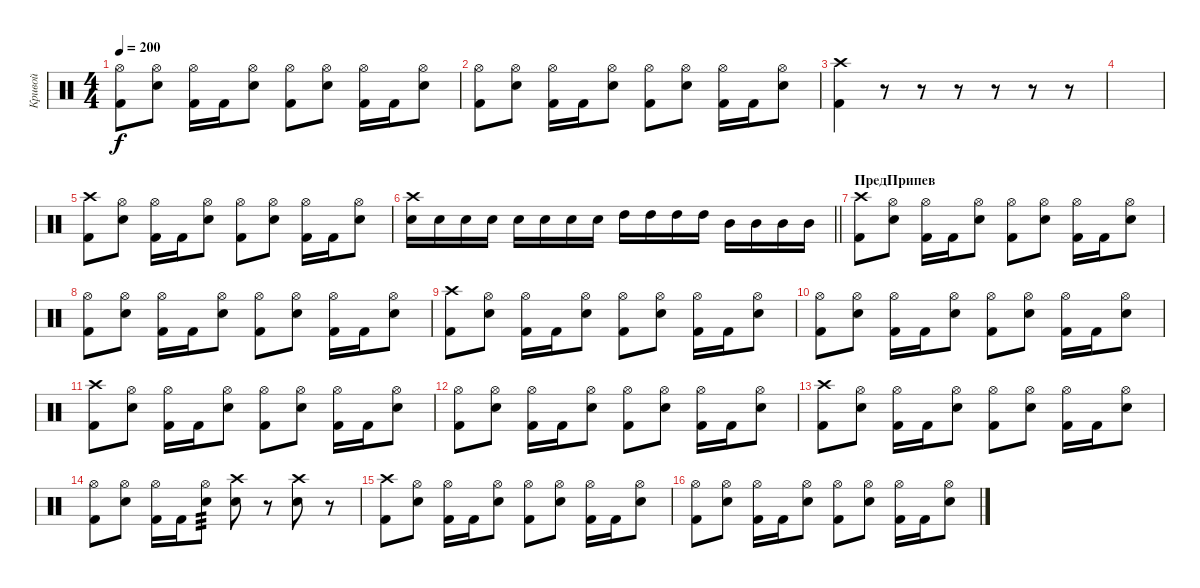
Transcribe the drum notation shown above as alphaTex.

\track ("Кривой" "Кривой") {instrument percussion}
\staff {score}
\articulation defaults
\ts (4 4)
\tempo 200
\clef neutral
\ks c
("Kick (hit) 2" "Hi-Hat (open)").8{dy f} ("Electric Snare (hit)" "Hi-Hat (open)").8 ("Kick (hit) 2" "Hi-Hat (open)").16 "Kick (hit) 2".16 ("Electric Snare (hit)" "Hi-Hat (open)").8 ("Kick (hit) 2" "Hi-Hat (open)").8 ("Electric Snare (hit)" "Hi-Hat (open)").8 ("Kick (hit) 2" "Hi-Hat (open)").16 "Kick (hit) 2".16 ("Electric Snare (hit)" "Hi-Hat (open)").8 |
("Kick (hit) 2" "Hi-Hat (open)").8 ("Electric Snare (hit)" "Hi-Hat (open)").8 ("Kick (hit) 2" "Hi-Hat (open)").16 "Kick (hit) 2".16 ("Electric Snare (hit)" "Hi-Hat (open)").8 ("Kick (hit) 2" "Hi-Hat (open)").8 ("Electric Snare (hit)" "Hi-Hat (open)").8 ("Kick (hit) 2" "Hi-Hat (open)").16 "Kick (hit) 2".16 ("Electric Snare (hit)" "Hi-Hat (open)").8 |
("Kick (hit) 2" "Crash high (hit)").4 r.8 r.8 r.8 r.8 r.8 r.8 |
|
("Kick (hit) 2" "Crash high (hit)").8 ("Electric Snare (hit)" "Hi-Hat (open)").8 ("Kick (hit) 2" "Hi-Hat (open)").16 "Kick (hit) 2".16 ("Electric Snare (hit)" "Hi-Hat (open)").8 ("Kick (hit) 2" "Hi-Hat (open)").8 ("Electric Snare (hit)" "Hi-Hat (open)").8 ("Kick (hit) 2" "Hi-Hat (open)").16 "Kick (hit) 2".16 ("Electric Snare (hit)" "Hi-Hat (open)").8 |
\barLineRight lightlight
("Electric Snare (hit)" "Crash high (hit)").16 "Electric Snare (hit)".16 "Electric Snare (hit)".16 "Electric Snare (hit)".16 "Electric Snare (hit)".16 "Electric Snare (hit)".16 "Electric Snare (hit)".16 "Electric Snare (hit)".16 "High Tom (hit)".16 "High Tom (hit)".16 "High Tom (hit)".16 "High Tom (hit)".16 "Mid Tom (hit)".16 "Mid Tom (hit)".16 "Mid Tom (hit)".16 "Mid Tom (hit)".16 |
\section ("" "ПредПрипев")
("Kick (hit) 2" "Crash high (hit)").8 ("Electric Snare (hit)" "Hi-Hat (open)").8 ("Kick (hit) 2" "Hi-Hat (open)").16 "Kick (hit) 2".16 ("Electric Snare (hit)" "Hi-Hat (open)").8 ("Kick (hit) 2" "Hi-Hat (open)").8 ("Electric Snare (hit)" "Hi-Hat (open)").8 ("Kick (hit) 2" "Hi-Hat (open)").16 "Kick (hit) 2".16 ("Electric Snare (hit)" "Hi-Hat (open)").8 |
("Kick (hit) 2" "Hi-Hat (open)").8 ("Electric Snare (hit)" "Hi-Hat (open)").8 ("Kick (hit) 2" "Hi-Hat (open)").16 "Kick (hit) 2".16 ("Electric Snare (hit)" "Hi-Hat (open)").8 ("Kick (hit) 2" "Hi-Hat (open)").8 ("Electric Snare (hit)" "Hi-Hat (open)").8 ("Kick (hit) 2" "Hi-Hat (open)").16 "Kick (hit) 2".16 ("Electric Snare (hit)" "Hi-Hat (open)").8 |
("Kick (hit) 2" "Crash high (hit)").8 ("Electric Snare (hit)" "Hi-Hat (open)").8 ("Kick (hit) 2" "Hi-Hat (open)").16 "Kick (hit) 2".16 ("Electric Snare (hit)" "Hi-Hat (open)").8 ("Kick (hit) 2" "Hi-Hat (open)").8 ("Electric Snare (hit)" "Hi-Hat (open)").8 ("Kick (hit) 2" "Hi-Hat (open)").16 "Kick (hit) 2".16 ("Electric Snare (hit)" "Hi-Hat (open)").8 |
("Kick (hit) 2" "Hi-Hat (open)").8 ("Electric Snare (hit)" "Hi-Hat (open)").8 ("Kick (hit) 2" "Hi-Hat (open)").16 "Kick (hit) 2".16 ("Electric Snare (hit)" "Hi-Hat (open)").8 ("Kick (hit) 2" "Hi-Hat (open)").8 ("Electric Snare (hit)" "Hi-Hat (open)").8 ("Kick (hit) 2" "Hi-Hat (open)").16 "Kick (hit) 2".16 ("Electric Snare (hit)" "Hi-Hat (open)").8 |
("Kick (hit) 2" "Crash high (hit)").8 ("Electric Snare (hit)" "Hi-Hat (open)").8 ("Kick (hit) 2" "Hi-Hat (open)").16 "Kick (hit) 2".16 ("Electric Snare (hit)" "Hi-Hat (open)").8 ("Kick (hit) 2" "Hi-Hat (open)").8 ("Electric Snare (hit)" "Hi-Hat (open)").8 ("Kick (hit) 2" "Hi-Hat (open)").16 "Kick (hit) 2".16 ("Electric Snare (hit)" "Hi-Hat (open)").8 |
("Kick (hit) 2" "Hi-Hat (open)").8 ("Electric Snare (hit)" "Hi-Hat (open)").8 ("Kick (hit) 2" "Hi-Hat (open)").16 "Kick (hit) 2".16 ("Electric Snare (hit)" "Hi-Hat (open)").8 ("Kick (hit) 2" "Hi-Hat (open)").8 ("Electric Snare (hit)" "Hi-Hat (open)").8 ("Kick (hit) 2" "Hi-Hat (open)").16 "Kick (hit) 2".16 ("Electric Snare (hit)" "Hi-Hat (open)").8 |
("Kick (hit) 2" "Crash high (hit)").8 ("Electric Snare (hit)" "Hi-Hat (open)").8 ("Kick (hit) 2" "Hi-Hat (open)").16 "Kick (hit) 2".16 ("Electric Snare (hit)" "Hi-Hat (open)").8 ("Kick (hit) 2" "Hi-Hat (open)").8 ("Electric Snare (hit)" "Hi-Hat (open)").8 ("Kick (hit) 2" "Hi-Hat (open)").16 "Kick (hit) 2".16 ("Electric Snare (hit)" "Hi-Hat (open)").8 |
("Kick (hit) 2" "Hi-Hat (open)").8 ("Electric Snare (hit)" "Hi-Hat (open)").8 ("Kick (hit) 2" "Hi-Hat (open)").16 "Kick (hit) 2".16 ("Electric Snare (hit)" "Hi-Hat (open)").8{tp 3} ("Electric Snare (hit)" "Crash high (hit)").8 r.8 ("Electric Snare (hit)" "Crash high (hit)").8 r.8 |
("Kick (hit) 2" "Crash high (hit)").8 ("Electric Snare (hit)" "Hi-Hat (open)").8 ("Kick (hit) 2" "Hi-Hat (open)").16 "Kick (hit) 2".16 ("Electric Snare (hit)" "Hi-Hat (open)").8 ("Kick (hit) 2" "Hi-Hat (open)").8 ("Electric Snare (hit)" "Hi-Hat (open)").8 ("Kick (hit) 2" "Hi-Hat (open)").16 "Kick (hit) 2".16 ("Electric Snare (hit)" "Hi-Hat (open)").8 |
("Kick (hit) 2" "Hi-Hat (open)").8 ("Electric Snare (hit)" "Hi-Hat (open)").8 ("Kick (hit) 2" "Hi-Hat (open)").16 "Kick (hit) 2".16 ("Electric Snare (hit)" "Hi-Hat (open)").8 ("Kick (hit) 2" "Hi-Hat (open)").8 ("Electric Snare (hit)" "Hi-Hat (open)").8 ("Kick (hit) 2" "Hi-Hat (open)").16 "Kick (hit) 2".16 ("Electric Snare (hit)" "Hi-Hat (open)").8
